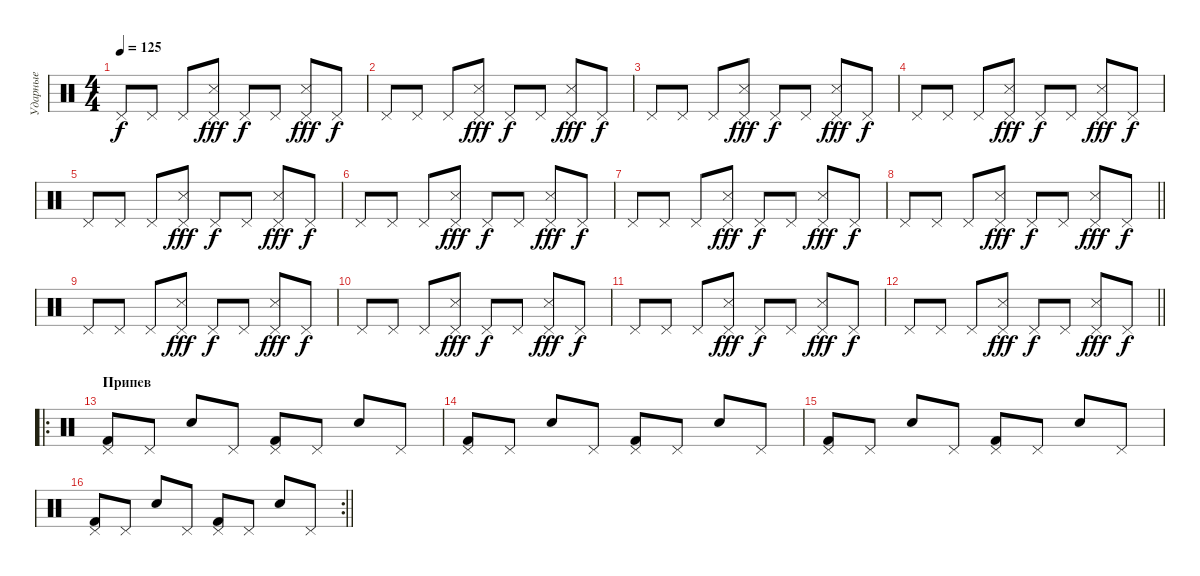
\track ("Ударные" "Ударные") {instrument percussion}
\staff {score}
\articulation defaults
\ts (4 4)
\tempo 125
\clef neutral
\ks c "Pedal Hi-Hat (hit)".8{dy f} "Pedal Hi-Hat (hit)".8 "Pedal Hi-Hat (hit)".8
("Pedal Hi-Hat (hit)" "Snare (side stick) 3").8{dy fff} "Pedal Hi-Hat (hit)".8{dy f} "Pedal Hi-Hat (hit)".8 ("Pedal Hi-Hat (hit)" "Snare (side stick) 3").8{dy fff} "Pedal Hi-Hat (hit)".8{dy f} |
"Pedal Hi-Hat (hit)".8 "Pedal Hi-Hat (hit)".8 "Pedal Hi-Hat (hit)".8 ("Pedal Hi-Hat (hit)" "Snare (side stick) 3").8{dy fff} "Pedal Hi-Hat (hit)".8{dy f} "Pedal Hi-Hat (hit)".8 ("Pedal Hi-Hat (hit)" "Snare (side stick) 3").8{dy fff} "Pedal Hi-Hat (hit)".8{dy f} |
"Pedal Hi-Hat (hit)".8 "Pedal Hi-Hat (hit)".8 "Pedal Hi-Hat (hit)".8 ("Pedal Hi-Hat (hit)" "Snare (side stick) 3").8{dy fff} "Pedal Hi-Hat (hit)".8{dy f} "Pedal Hi-Hat (hit)".8 ("Pedal Hi-Hat (hit)" "Snare (side stick) 3").8{dy fff} "Pedal Hi-Hat (hit)".8{dy f} |
"Pedal Hi-Hat (hit)".8 "Pedal Hi-Hat (hit)".8 "Pedal Hi-Hat (hit)".8 ("Pedal Hi-Hat (hit)" "Snare (side stick) 3").8{dy fff} "Pedal Hi-Hat (hit)".8{dy f} "Pedal Hi-Hat (hit)".8 ("Pedal Hi-Hat (hit)" "Snare (side stick) 3").8{dy fff} "Pedal Hi-Hat (hit)".8{dy f} |
"Pedal Hi-Hat (hit)".8 "Pedal Hi-Hat (hit)".8 "Pedal Hi-Hat (hit)".8 ("Pedal Hi-Hat (hit)" "Snare (side stick) 3").8{dy fff} "Pedal Hi-Hat (hit)".8{dy f} "Pedal Hi-Hat (hit)".8 ("Pedal Hi-Hat (hit)" "Snare (side stick) 3").8{dy fff} "Pedal Hi-Hat (hit)".8{dy f} |
"Pedal Hi-Hat (hit)".8 "Pedal Hi-Hat (hit)".8 "Pedal Hi-Hat (hit)".8 ("Pedal Hi-Hat (hit)" "Snare (side stick) 3").8{dy fff} "Pedal Hi-Hat (hit)".8{dy f} "Pedal Hi-Hat (hit)".8 ("Pedal Hi-Hat (hit)" "Snare (side stick) 3").8{dy fff} "Pedal Hi-Hat (hit)".8{dy f} |
"Pedal Hi-Hat (hit)".8 "Pedal Hi-Hat (hit)".8 "Pedal Hi-Hat (hit)".8 ("Pedal Hi-Hat (hit)" "Snare (side stick) 3").8{dy fff} "Pedal Hi-Hat (hit)".8{dy f} "Pedal Hi-Hat (hit)".8 ("Pedal Hi-Hat (hit)" "Snare (side stick) 3").8{dy fff} "Pedal Hi-Hat (hit)".8{dy f} |
\barLineRight lightlight "Pedal Hi-Hat (hit)".8 "Pedal Hi-Hat (hit)".8 "Pedal Hi-Hat (hit)".8
("Pedal Hi-Hat (hit)" "Snare (side stick) 3").8{dy fff} "Pedal Hi-Hat (hit)".8{dy f} "Pedal Hi-Hat (hit)".8 ("Pedal Hi-Hat (hit)" "Snare (side stick) 3").8{dy fff} "Pedal Hi-Hat (hit)".8{dy f} |
"Pedal Hi-Hat (hit)".8 "Pedal Hi-Hat (hit)".8 "Pedal Hi-Hat (hit)".8 ("Pedal Hi-Hat (hit)" "Snare (side stick) 3").8{dy fff} "Pedal Hi-Hat (hit)".8{dy f} "Pedal Hi-Hat (hit)".8 ("Pedal Hi-Hat (hit)" "Snare (side stick) 3").8{dy fff} "Pedal Hi-Hat (hit)".8{dy f} |
"Pedal Hi-Hat (hit)".8 "Pedal Hi-Hat (hit)".8 "Pedal Hi-Hat (hit)".8 ("Pedal Hi-Hat (hit)" "Snare (side stick) 3").8{dy fff} "Pedal Hi-Hat (hit)".8{dy f} "Pedal Hi-Hat (hit)".8 ("Pedal Hi-Hat (hit)" "Snare (side stick) 3").8{dy fff} "Pedal Hi-Hat (hit)".8{dy f} |
"Pedal Hi-Hat (hit)".8 "Pedal Hi-Hat (hit)".8 "Pedal Hi-Hat (hit)".8 ("Pedal Hi-Hat (hit)" "Snare (side stick) 3").8{dy fff} "Pedal Hi-Hat (hit)".8{dy f} "Pedal Hi-Hat (hit)".8 ("Pedal Hi-Hat (hit)" "Snare (side stick) 3").8{dy fff} "Pedal Hi-Hat (hit)".8{dy f} |
\barLineRight lightlight "Pedal Hi-Hat (hit)".8 "Pedal Hi-Hat (hit)".8 "Pedal Hi-Hat (hit)".8
("Pedal Hi-Hat (hit)" "Snare (side stick) 3").8{dy fff} "Pedal Hi-Hat (hit)".8{dy f} "Pedal Hi-Hat (hit)".8 ("Pedal Hi-Hat (hit)" "Snare (side stick) 3").8{dy fff} "Pedal Hi-Hat (hit)".8{dy f} |
\ro
\section ("" "Припев")
("Pedal Hi-Hat (hit)" "Kick (hit) 2").8 "Pedal Hi-Hat (hit)".8 "Electric Snare (hit)".8 "Pedal Hi-Hat (hit)".8 ("Pedal Hi-Hat (hit)" "Kick (hit) 2").8 "Pedal Hi-Hat (hit)".8 "Electric Snare (hit)".8 "Pedal Hi-Hat (hit)".8 |
("Pedal Hi-Hat (hit)" "Kick (hit) 2").8 "Pedal Hi-Hat (hit)".8 "Electric Snare (hit)".8 "Pedal Hi-Hat (hit)".8 ("Pedal Hi-Hat (hit)" "Kick (hit) 2").8 "Pedal Hi-Hat (hit)".8 "Electric Snare (hit)".8 "Pedal Hi-Hat (hit)".8 |
("Pedal Hi-Hat (hit)" "Kick (hit) 2").8 "Pedal Hi-Hat (hit)".8 "Electric Snare (hit)".8 "Pedal Hi-Hat (hit)".8 ("Pedal Hi-Hat (hit)" "Kick (hit) 2").8 "Pedal Hi-Hat (hit)".8 "Electric Snare (hit)".8 "Pedal Hi-Hat (hit)".8 |
\rc 2
\barLineRight lightlight
("Pedal Hi-Hat (hit)" "Kick (hit) 2").8 "Pedal Hi-Hat (hit)".8 "Electric Snare (hit)".8 "Pedal Hi-Hat (hit)".8 ("Pedal Hi-Hat (hit)" "Kick (hit) 2").8 "Pedal Hi-Hat (hit)".8 "Electric Snare (hit)".8 "Pedal Hi-Hat (hit)".8
